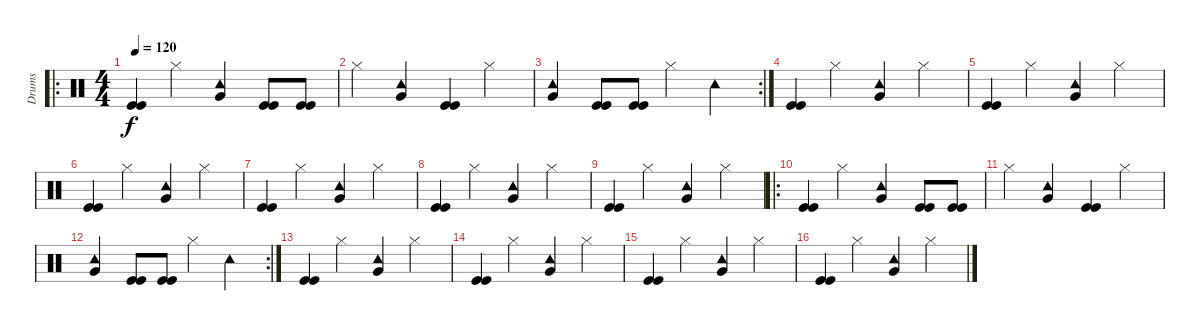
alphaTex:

\track ("Drums" "Drums") {instrument percussion}
\staff {score}
\articulation defaults
\ro
\ts (4 4)
\tempo 120
\clef neutral
\ks c
("Kick (hit)" "Kick (hit)").4{dy f} "Hi-Hat (closed)".4 ("Tambourine (hit)" "Very Low Tom (hit)").4 ("Kick (hit)" "Kick (hit)").8 ("Kick (hit)" "Kick (hit)").8 |
"Hi-Hat (closed)".4 ("Tambourine (hit)" "Very Low Tom (hit)").4 ("Kick (hit)" "Kick (hit)").4 "Hi-Hat (closed)".4 |
\rc 2
("Tambourine (hit)" "Very Low Tom (hit)").4 ("Kick (hit)" "Kick (hit)").8 ("Kick (hit)" "Kick (hit)").8 "Hi-Hat (closed)".4 "Tambourine (hit)".4 |
("Kick (hit)" "Kick (hit)").4 "Hi-Hat (closed)".4 ("Tambourine (hit)" "Very Low Tom (hit)").4 "Hi-Hat (closed)".4 |
("Kick (hit)" "Kick (hit)").4 "Hi-Hat (closed)".4 ("Tambourine (hit)" "Very Low Tom (hit)").4 "Hi-Hat (closed)".4 |
("Kick (hit)" "Kick (hit)").4 "Hi-Hat (closed)".4 ("Tambourine (hit)" "Very Low Tom (hit)").4 "Hi-Hat (closed)".4 |
("Kick (hit)" "Kick (hit)").4 "Hi-Hat (closed)".4 ("Tambourine (hit)" "Very Low Tom (hit)").4 "Hi-Hat (closed)".4 |
("Kick (hit)" "Kick (hit)").4 "Hi-Hat (closed)".4 ("Tambourine (hit)" "Very Low Tom (hit)").4 "Hi-Hat (closed)".4 |
("Kick (hit)" "Kick (hit)").4 "Hi-Hat (closed)".4 ("Tambourine (hit)" "Very Low Tom (hit)").4 "Hi-Hat (closed)".4 |
\ro
("Kick (hit)" "Kick (hit)").4 "Hi-Hat (closed)".4 ("Tambourine (hit)" "Very Low Tom (hit)").4 ("Kick (hit)" "Kick (hit)").8 ("Kick (hit)" "Kick (hit)").8 |
"Hi-Hat (closed)".4 ("Tambourine (hit)" "Very Low Tom (hit)").4 ("Kick (hit)" "Kick (hit)").4 "Hi-Hat (closed)".4 |
\rc 2
("Tambourine (hit)" "Very Low Tom (hit)").4 ("Kick (hit)" "Kick (hit)").8 ("Kick (hit)" "Kick (hit)").8 "Hi-Hat (closed)".4 "Tambourine (hit)".4 |
("Kick (hit)" "Kick (hit)").4 "Hi-Hat (closed)".4 ("Tambourine (hit)" "Very Low Tom (hit)").4 "Hi-Hat (closed)".4 |
("Kick (hit)" "Kick (hit)").4 "Hi-Hat (closed)".4 ("Tambourine (hit)" "Very Low Tom (hit)").4 "Hi-Hat (closed)".4 |
("Kick (hit)" "Kick (hit)").4 "Hi-Hat (closed)".4 ("Tambourine (hit)" "Very Low Tom (hit)").4 "Hi-Hat (closed)".4 |
("Kick (hit)" "Kick (hit)").4 "Hi-Hat (closed)".4 ("Tambourine (hit)" "Very Low Tom (hit)").4 "Hi-Hat (closed)".4
